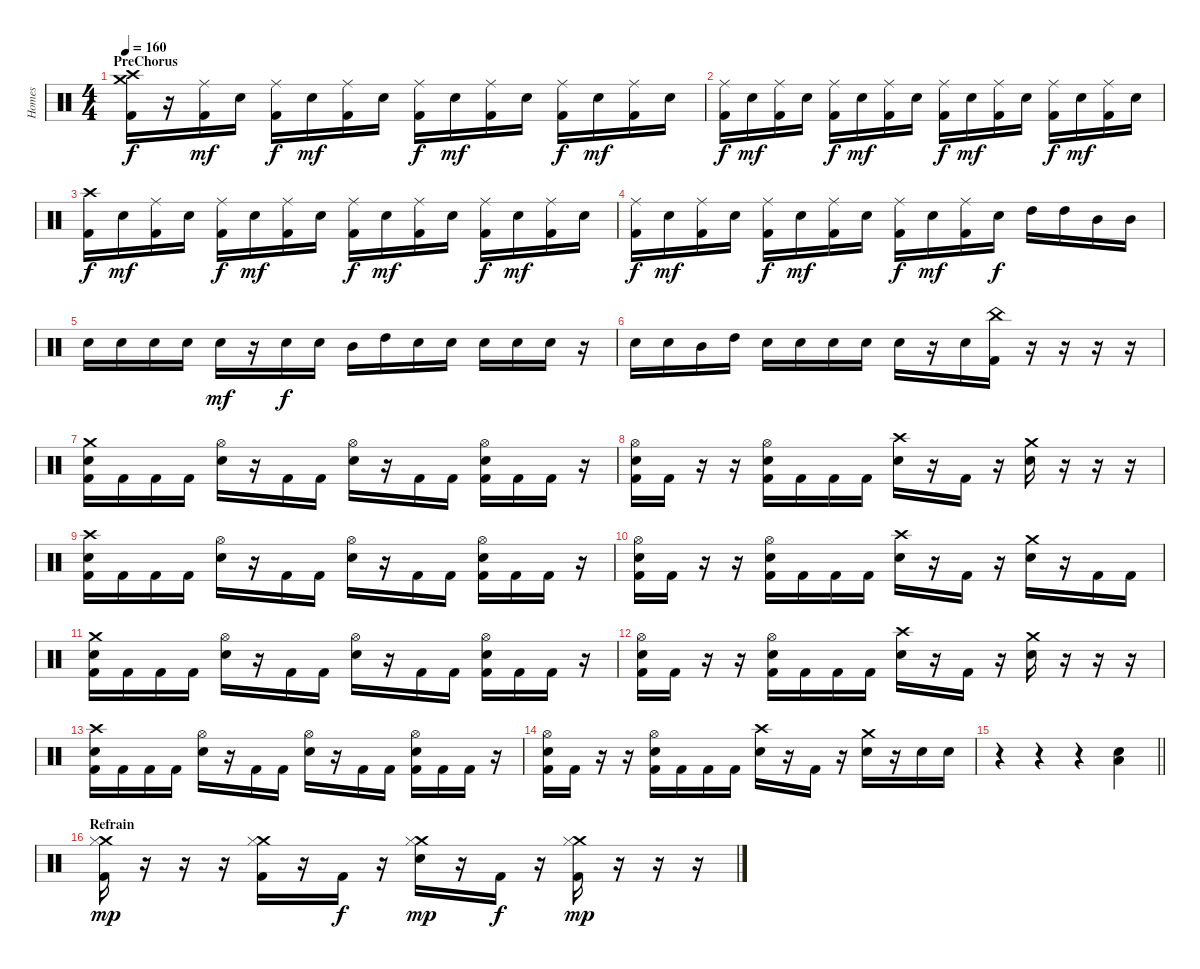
\track ("Homes" "Homes") {instrument percussion}
\staff {score}
\articulation defaults
\ts (4 4)
\section ("" "PreChorus")
\tempo 160
\clef neutral
\ks c
("Crash high (hit)" "Crash medium (hit)" "Kick (hit) 2").16{dy f} r.16 ("Ride (middle)" "Kick (hit) 2").16{dy mf} "Electric Snare (hit)".16 ("Ride (middle)" "Kick (hit) 2").16{dy f} "Electric Snare (hit)".16{dy mf} ("Ride (middle)" "Kick (hit) 2").16 "Electric Snare (hit)".16 ("Ride (middle)" "Kick (hit) 2").16{dy f} "Electric Snare (hit)".16{dy mf} ("Ride (middle)" "Kick (hit) 2").16 "Electric Snare (hit)".16 ("Ride (middle)" "Kick (hit) 2").16{dy f} "Electric Snare (hit)".16{dy mf} ("Ride (middle)" "Kick (hit) 2").16 "Electric Snare (hit)".16 |
("Ride (middle)" "Kick (hit) 2").16{dy f} "Electric Snare (hit)".16{dy mf} ("Ride (middle)" "Kick (hit) 2").16 "Electric Snare (hit)".16 ("Ride (middle)" "Kick (hit) 2").16{dy f} "Electric Snare (hit)".16{dy mf} ("Ride (middle)" "Kick (hit) 2").16 "Electric Snare (hit)".16 ("Ride (middle)" "Kick (hit) 2").16{dy f} "Electric Snare (hit)".16{dy mf} ("Ride (middle)" "Kick (hit) 2").16 "Electric Snare (hit)".16 ("Ride (middle)" "Kick (hit) 2").16{dy f} "Electric Snare (hit)".16{dy mf} ("Ride (middle)" "Kick (hit) 2").16 "Electric Snare (hit)".16 |
("Crash high (hit)" "Kick (hit) 2").16{dy f} "Electric Snare (hit)".16{dy mf} ("Ride (middle)" "Kick (hit) 2").16 "Electric Snare (hit)".16 ("Ride (middle)" "Kick (hit) 2").16{dy f} "Electric Snare (hit)".16{dy mf} ("Ride (middle)" "Kick (hit) 2").16 "Electric Snare (hit)".16 ("Ride (middle)" "Kick (hit) 2").16{dy f} "Electric Snare (hit)".16{dy mf} ("Ride (middle)" "Kick (hit) 2").16 "Electric Snare (hit)".16 ("Ride (middle)" "Kick (hit) 2").16{dy f} "Electric Snare (hit)".16{dy mf} ("Ride (middle)" "Kick (hit) 2").16 "Electric Snare (hit)".16 |
("Ride (middle)" "Kick (hit) 2").16{dy f} "Electric Snare (hit)".16{dy mf} ("Ride (middle)" "Kick (hit) 2").16 "Electric Snare (hit)".16 ("Ride (middle)" "Kick (hit) 2").16{dy f} "Electric Snare (hit)".16{dy mf} ("Ride (middle)" "Kick (hit) 2").16 "Electric Snare (hit)".16 ("Ride (middle)" "Kick (hit) 2").16{dy f} "Electric Snare (hit)".16{dy mf} ("Ride (middle)" "Kick (hit) 2").16 "Electric Snare (hit)".16{dy f} "High Tom (hit)".16 "High Tom (hit)".16 "Mid Tom (hit)".16 "Mid Tom (hit)".16 |
"Electric Snare (hit)".16 "Electric Snare (hit)".16 "Electric Snare (hit)".16 "Electric Snare (hit)".16 "Electric Snare (hit)".16{dy mf} r.16 "Electric Snare (hit)".16{dy f} "Electric Snare (hit)".16 "Mid Tom (hit)".16 "High Tom (hit)".16 "Electric Snare (hit)".16 "Electric Snare (hit)".16 "Electric Snare (hit)".16 "Electric Snare (hit)".16 "Electric Snare (hit)".16 r.16 |
"Electric Snare (hit)".16 "Electric Snare (hit)".16 "Mid Tom (hit)".16 "High Tom (hit)".16 "Electric Snare (hit)".16 "Electric Snare (hit)".16 "Electric Snare (hit)".16 "Electric Snare (hit)".16 "Electric Snare (hit)".16 r.16 "Electric Snare (hit)".16 ("China (hit)" "Kick (hit) 2").16 r.16 r.16 r.16 r.16 |
("Crash medium (hit)" "Electric Snare (hit)" "Kick (hit) 2").16 "Kick (hit) 2".16 "Kick (hit) 2".16 "Kick (hit) 2".16 ("Hi-Hat (open)" "Electric Snare (hit)").16 r.16 "Kick (hit) 2".16 "Kick (hit) 2".16 ("Hi-Hat (open)" "Electric Snare (hit)").16 r.16 "Kick (hit) 2".16 "Kick (hit) 2".16 ("Hi-Hat (open)" "Electric Snare (hit)" "Kick (hit) 2").16 "Kick (hit) 2".16 "Kick (hit) 2".16 r.16 |
("Hi-Hat (open)" "Electric Snare (hit)" "Kick (hit) 2").16 "Kick (hit) 2".16 r.16 r.16 ("Hi-Hat (open)" "Electric Snare (hit)" "Kick (hit) 2").16 "Kick (hit) 2".16 "Kick (hit) 2".16 "Kick (hit) 2".16 ("Crash high (hit)" "Electric Snare (hit)").16 r.16 "Kick (hit) 2".16 r.16 ("Crash medium (hit)" "Electric Snare (hit)").16 r.16 r.16 r.16 |
("Crash high (hit)" "Electric Snare (hit)" "Kick (hit) 2").16 "Kick (hit) 2".16 "Kick (hit) 2".16 "Kick (hit) 2".16 ("Hi-Hat (open)" "Electric Snare (hit)").16 r.16 "Kick (hit) 2".16 "Kick (hit) 2".16 ("Hi-Hat (open)" "Electric Snare (hit)").16 r.16 "Kick (hit) 2".16 "Kick (hit) 2".16 ("Hi-Hat (open)" "Electric Snare (hit)" "Kick (hit) 2").16 "Kick (hit) 2".16 "Kick (hit) 2".16 r.16 |
("Hi-Hat (open)" "Electric Snare (hit)" "Kick (hit) 2").16 "Kick (hit) 2".16 r.16 r.16 ("Hi-Hat (open)" "Electric Snare (hit)" "Kick (hit) 2").16 "Kick (hit) 2".16 "Kick (hit) 2".16 "Kick (hit) 2".16 ("Crash high (hit)" "Electric Snare (hit)").16 r.16 "Kick (hit) 2".16 r.16 ("Crash medium (hit)" "Electric Snare (hit)").16 r.16 "Kick (hit) 2".16 "Kick (hit) 2".16 |
("Crash medium (hit)" "Electric Snare (hit)" "Kick (hit) 2").16 "Kick (hit) 2".16 "Kick (hit) 2".16 "Kick (hit) 2".16 ("Hi-Hat (open)" "Electric Snare (hit)").16 r.16 "Kick (hit) 2".16 "Kick (hit) 2".16 ("Hi-Hat (open)" "Electric Snare (hit)").16 r.16 "Kick (hit) 2".16 "Kick (hit) 2".16 ("Hi-Hat (open)" "Electric Snare (hit)" "Kick (hit) 2").16 "Kick (hit) 2".16 "Kick (hit) 2".16 r.16 |
("Hi-Hat (open)" "Electric Snare (hit)" "Kick (hit) 2").16 "Kick (hit) 2".16 r.16 r.16 ("Hi-Hat (open)" "Electric Snare (hit)" "Kick (hit) 2").16 "Kick (hit) 2".16 "Kick (hit) 2".16 "Kick (hit) 2".16 ("Crash high (hit)" "Electric Snare (hit)").16 r.16 "Kick (hit) 2".16 r.16 ("Crash medium (hit)" "Electric Snare (hit)").16 r.16 r.16 r.16 |
("Crash high (hit)" "Electric Snare (hit)" "Kick (hit) 2").16 "Kick (hit) 2".16 "Kick (hit) 2".16 "Kick (hit) 2".16 ("Hi-Hat (open)" "Electric Snare (hit)").16 r.16 "Kick (hit) 2".16 "Kick (hit) 2".16 ("Hi-Hat (open)" "Electric Snare (hit)").16 r.16 "Kick (hit) 2".16 "Kick (hit) 2".16 ("Hi-Hat (open)" "Electric Snare (hit)" "Kick (hit) 2").16 "Kick (hit) 2".16 "Kick (hit) 2".16 r.16 |
("Hi-Hat (open)" "Electric Snare (hit)" "Kick (hit) 2").16 "Kick (hit) 2".16 r.16 r.16 ("Hi-Hat (open)" "Electric Snare (hit)" "Kick (hit) 2").16 "Kick (hit) 2".16 "Kick (hit) 2".16 "Kick (hit) 2".16 ("Crash high (hit)" "Electric Snare (hit)").16 r.16 "Kick (hit) 2".16 r.16 ("Crash medium (hit)" "Electric Snare (hit)").16 r.16 "Electric Snare (hit)".16 "Electric Snare (hit)".16 |
\barLineRight lightlight
r.4 r.4 r.4 ("Electric Snare (hit)" "Low Tom (hit)").4 |
\section ("" "Refrain")
("Crash medium (hit)" "Hi-Hat (closed)" "Kick (hit) 2").16{dy mp} r.16 r.16 r.16 ("Crash medium (hit)" "Hi-Hat (closed)" "Kick (hit) 2").16 r.16 "Kick (hit) 2".16{dy f} r.16 ("Crash medium (hit)" "Hi-Hat (closed)" "Electric Snare (hit)").16{dy mp} r.16 "Kick (hit) 2".16{dy f} r.16 ("Crash medium (hit)" "Hi-Hat (closed)" "Kick (hit) 2").16{dy mp} r.16 r.16 r.16
